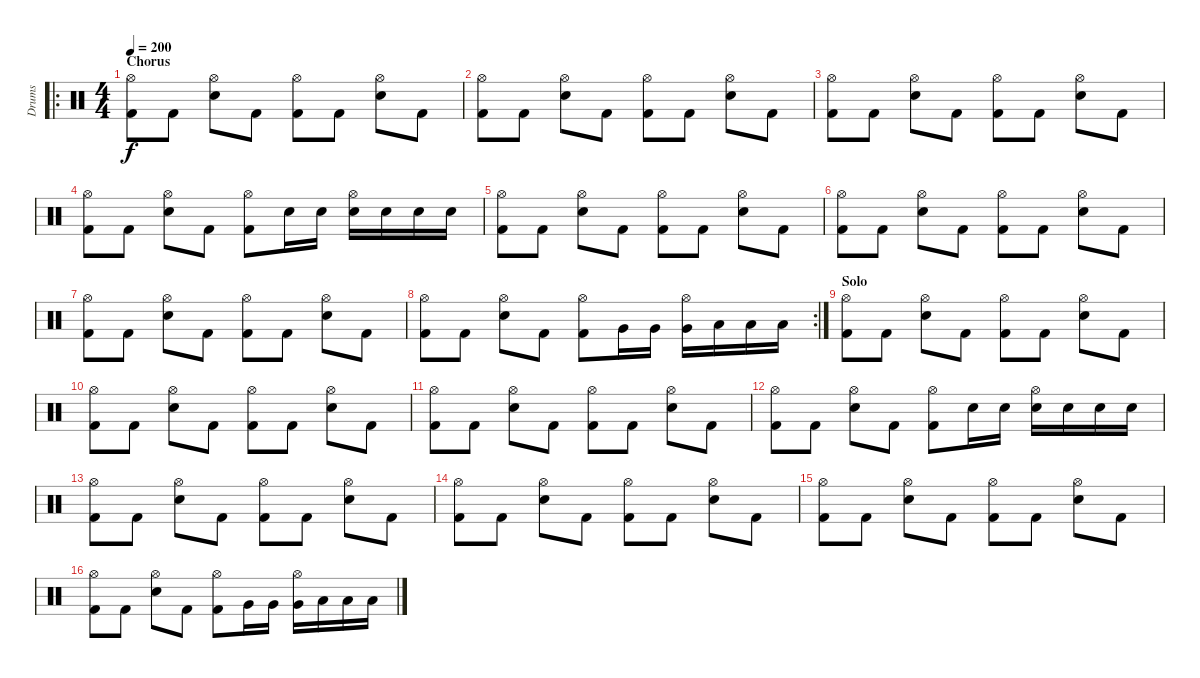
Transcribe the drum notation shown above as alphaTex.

\track ("Drums" "Drums") {instrument percussion}
\staff {score}
\articulation defaults
\ro
\ts (4 4)
\section ("" "Chorus")
\tempo 200
\clef neutral
\ks c
("Hi-Hat (open)" "Kick (hit) 2").8{dy f} "Kick (hit) 2".8 ("Hi-Hat (open)" "Snare (hit) 2").8 "Kick (hit) 2".8 ("Hi-Hat (open)" "Kick (hit) 2").8 "Kick (hit) 2".8 ("Hi-Hat (open)" "Snare (hit) 2").8 "Kick (hit) 2".8 |
("Hi-Hat (open)" "Kick (hit) 2").8 "Kick (hit) 2".8 ("Hi-Hat (open)" "Snare (hit) 2").8 "Kick (hit) 2".8 ("Hi-Hat (open)" "Kick (hit) 2").8 "Kick (hit) 2".8 ("Hi-Hat (open)" "Snare (hit) 2").8 "Kick (hit) 2".8 |
("Hi-Hat (open)" "Kick (hit) 2").8 "Kick (hit) 2".8 ("Hi-Hat (open)" "Snare (hit) 2").8 "Kick (hit) 2".8 ("Hi-Hat (open)" "Kick (hit) 2").8 "Kick (hit) 2".8 ("Hi-Hat (open)" "Snare (hit) 2").8 "Kick (hit) 2".8 |
("Hi-Hat (open)" "Kick (hit) 2").8 "Kick (hit) 2".8 ("Hi-Hat (open)" "Snare (hit) 2").8 "Kick (hit) 2".8 ("Hi-Hat (open)" "Kick (hit) 2").8 "Snare (hit) 2".16 "Snare (hit) 2".16 ("Hi-Hat (open)" "Snare (hit) 2").16 "Snare (hit) 2".16 "Snare (hit) 2".16 "Snare (hit) 2".16 |
("Hi-Hat (open)" "Kick (hit) 2").8 "Kick (hit) 2".8 ("Hi-Hat (open)" "Snare (hit) 2").8 "Kick (hit) 2".8 ("Hi-Hat (open)" "Kick (hit) 2").8 "Kick (hit) 2".8 ("Hi-Hat (open)" "Snare (hit) 2").8 "Kick (hit) 2".8 |
("Hi-Hat (open)" "Kick (hit) 2").8 "Kick (hit) 2".8 ("Hi-Hat (open)" "Snare (hit) 2").8 "Kick (hit) 2".8 ("Hi-Hat (open)" "Kick (hit) 2").8 "Kick (hit) 2".8 ("Hi-Hat (open)" "Snare (hit) 2").8 "Kick (hit) 2".8 |
("Hi-Hat (open)" "Kick (hit) 2").8 "Kick (hit) 2".8 ("Hi-Hat (open)" "Snare (hit) 2").8 "Kick (hit) 2".8 ("Hi-Hat (open)" "Kick (hit) 2").8 "Kick (hit) 2".8 ("Hi-Hat (open)" "Snare (hit) 2").8 "Kick (hit) 2".8 |
\rc 2
("Hi-Hat (open)" "Kick (hit) 2").8 "Kick (hit) 2".8 ("Hi-Hat (open)" "Snare (hit) 2").8 "Kick (hit) 2".8 ("Hi-Hat (open)" "Kick (hit) 2").8 "Very Low Tom (hit)".16 "Very Low Tom (hit)".16 ("Hi-Hat (open)" "Very Low Tom (hit)").16 "Low Floor Tom (hit)".16 "Low Floor Tom (hit)".16 "Low Floor Tom (hit)".16 |
\section ("" "Solo")
("Hi-Hat (open)" "Kick (hit) 2").8 "Kick (hit) 2".8 ("Hi-Hat (open)" "Snare (hit) 2").8 "Kick (hit) 2".8 ("Hi-Hat (open)" "Kick (hit) 2").8 "Kick (hit) 2".8 ("Hi-Hat (open)" "Snare (hit) 2").8 "Kick (hit) 2".8 |
("Hi-Hat (open)" "Kick (hit) 2").8 "Kick (hit) 2".8 ("Hi-Hat (open)" "Snare (hit) 2").8 "Kick (hit) 2".8 ("Hi-Hat (open)" "Kick (hit) 2").8 "Kick (hit) 2".8 ("Hi-Hat (open)" "Snare (hit) 2").8 "Kick (hit) 2".8 |
("Hi-Hat (open)" "Kick (hit) 2").8 "Kick (hit) 2".8 ("Hi-Hat (open)" "Snare (hit) 2").8 "Kick (hit) 2".8 ("Hi-Hat (open)" "Kick (hit) 2").8 "Kick (hit) 2".8 ("Hi-Hat (open)" "Snare (hit) 2").8 "Kick (hit) 2".8 |
("Hi-Hat (open)" "Kick (hit) 2").8 "Kick (hit) 2".8 ("Hi-Hat (open)" "Snare (hit) 2").8 "Kick (hit) 2".8 ("Hi-Hat (open)" "Kick (hit) 2").8 "Snare (hit) 2".16 "Snare (hit) 2".16 ("Hi-Hat (open)" "Snare (hit) 2").16 "Snare (hit) 2".16 "Snare (hit) 2".16 "Snare (hit) 2".16 |
("Hi-Hat (open)" "Kick (hit) 2").8 "Kick (hit) 2".8 ("Hi-Hat (open)" "Snare (hit) 2").8 "Kick (hit) 2".8 ("Hi-Hat (open)" "Kick (hit) 2").8 "Kick (hit) 2".8 ("Hi-Hat (open)" "Snare (hit) 2").8 "Kick (hit) 2".8 |
("Hi-Hat (open)" "Kick (hit) 2").8 "Kick (hit) 2".8 ("Hi-Hat (open)" "Snare (hit) 2").8 "Kick (hit) 2".8 ("Hi-Hat (open)" "Kick (hit) 2").8 "Kick (hit) 2".8 ("Hi-Hat (open)" "Snare (hit) 2").8 "Kick (hit) 2".8 |
("Hi-Hat (open)" "Kick (hit) 2").8 "Kick (hit) 2".8 ("Hi-Hat (open)" "Snare (hit) 2").8 "Kick (hit) 2".8 ("Hi-Hat (open)" "Kick (hit) 2").8 "Kick (hit) 2".8 ("Hi-Hat (open)" "Snare (hit) 2").8 "Kick (hit) 2".8 |
("Hi-Hat (open)" "Kick (hit) 2").8 "Kick (hit) 2".8 ("Hi-Hat (open)" "Snare (hit) 2").8 "Kick (hit) 2".8 ("Hi-Hat (open)" "Kick (hit) 2").8 "Very Low Tom (hit)".16 "Very Low Tom (hit)".16 ("Hi-Hat (open)" "Very Low Tom (hit)").16 "Low Floor Tom (hit)".16 "Low Floor Tom (hit)".16 "Low Floor Tom (hit)".16
